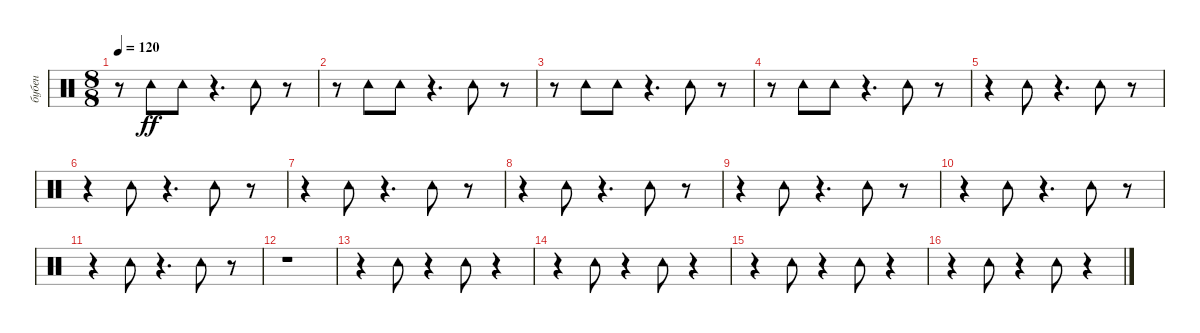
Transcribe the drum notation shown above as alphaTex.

\track ("бубен" "бубен") {instrument percussion}
\staff {score}
\articulation defaults
\ts (8 8)
\tempo 120
\clef neutral
\ks c
r.8{dy ff} "Tambourine (hit)".8 "Tambourine (hit)".8 r.4{d} "Tambourine (hit)".8 r.8 |
r.8 "Tambourine (hit)".8 "Tambourine (hit)".8 r.4{d} "Tambourine (hit)".8 r.8 |
r.8 "Tambourine (hit)".8 "Tambourine (hit)".8 r.4{d} "Tambourine (hit)".8 r.8 |
r.8 "Tambourine (hit)".8 "Tambourine (hit)".8 r.4{d} "Tambourine (hit)".8 r.8 |
r.4 "Tambourine (hit)".8 r.4{d} "Tambourine (hit)".8 r.8 |
r.4 "Tambourine (hit)".8 r.4{d} "Tambourine (hit)".8 r.8 |
r.4 "Tambourine (hit)".8 r.4{d} "Tambourine (hit)".8 r.8 |
r.4 "Tambourine (hit)".8 r.4{d} "Tambourine (hit)".8 r.8 |
r.4 "Tambourine (hit)".8 r.4{d} "Tambourine (hit)".8 r.8 |
r.4 "Tambourine (hit)".8 r.4{d} "Tambourine (hit)".8 r.8 |
r.4 "Tambourine (hit)".8 r.4{d} "Tambourine (hit)".8 r.8 |
r.1 |
r.4 "Tambourine (hit)".8 r.4 "Tambourine (hit)".8 r.4 |
r.4 "Tambourine (hit)".8 r.4 "Tambourine (hit)".8 r.4 |
r.4 "Tambourine (hit)".8 r.4 "Tambourine (hit)".8 r.4 |
r.4 "Tambourine (hit)".8 r.4 "Tambourine (hit)".8 r.4
